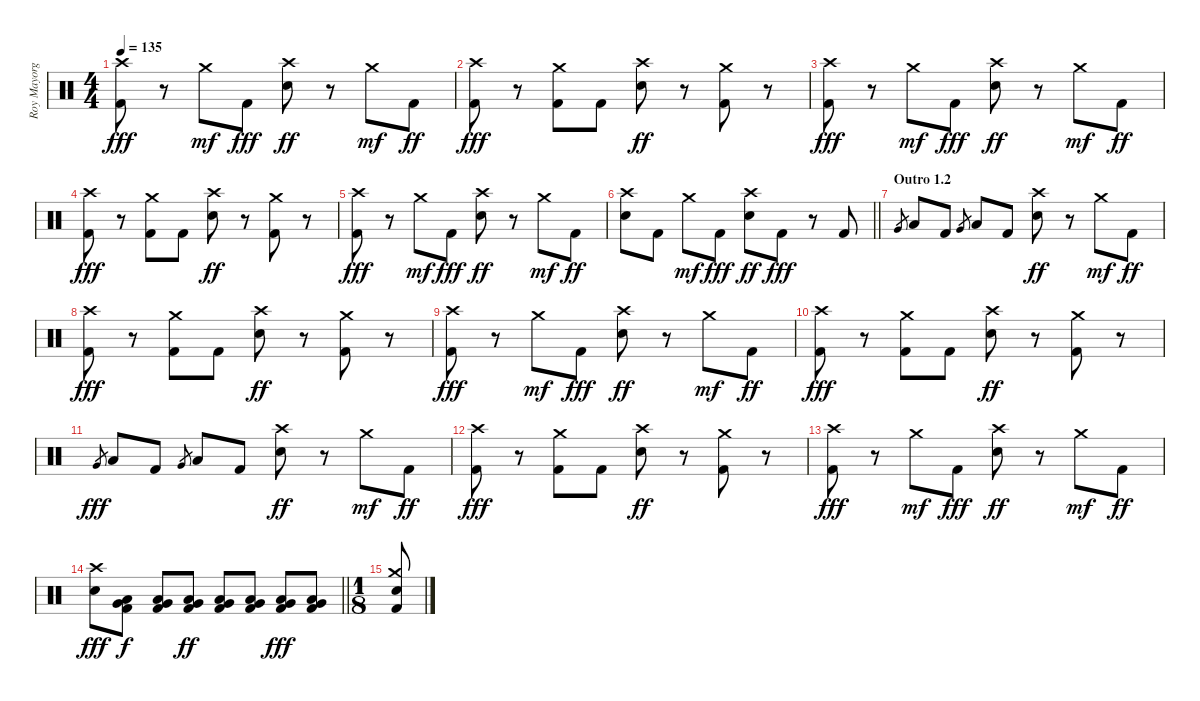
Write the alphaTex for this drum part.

\track ("Roy Mayorga" "Roy Mayorg") {instrument percussion}
\staff {score}
\articulation defaults
\ts (4 4)
\tempo 135
\clef neutral
\ks c
("Crash high (hit)" "Kick (hit) 2").8{dy fff} r.8 "Crash medium (hit)".8{dy mf} "Kick (hit) 2".8{dy fff} ("Crash high (hit)" "Electric Snare (hit)").8{dy ff} r.8 "Crash medium (hit)".8{dy mf} "Kick (hit) 2".8{dy ff} |
("Crash high (hit)" "Kick (hit) 2").8{dy fff} r.8 ("Crash medium (hit)" "Kick (hit) 2").8 "Kick (hit) 2".8 ("Crash high (hit)" "Electric Snare (hit)").8{dy ff} r.8 ("Crash medium (hit)" "Kick (hit) 2").8 r.8 |
("Crash high (hit)" "Kick (hit) 2").8{dy fff} r.8 "Crash medium (hit)".8{dy mf} "Kick (hit) 2".8{dy fff} ("Crash high (hit)" "Electric Snare (hit)").8{dy ff} r.8 "Crash medium (hit)".8{dy mf} "Kick (hit) 2".8{dy ff} |
("Crash high (hit)" "Kick (hit) 2").8{dy fff} r.8 ("Crash medium (hit)" "Kick (hit) 2").8 "Kick (hit) 2".8 ("Crash high (hit)" "Electric Snare (hit)").8{dy ff} r.8 ("Crash medium (hit)" "Kick (hit) 2").8 r.8 |
("Crash high (hit)" "Kick (hit) 2").8{dy fff} r.8 "Crash medium (hit)".8{dy mf} "Kick (hit) 2".8{dy fff} ("Crash high (hit)" "Electric Snare (hit)").8{dy ff} r.8 "Crash medium (hit)".8{dy mf} "Kick (hit) 2".8{dy ff} |
\barLineRight lightlight
("Crash high (hit)" "Electric Snare (hit)").8 "Kick (hit) 2".8 "Crash medium (hit)".8{dy mf} "Kick (hit) 2".8{dy fff} ("Crash high (hit)" "Electric Snare (hit)").8{dy ff} "Kick (hit) 2".8{dy fff} r.8 "Kick (hit) 2".8 |
\section ("" "Outro 1.2")
"Very Low Tom (hit)".8{gr} "Low Floor Tom (hit)".8 "Kick (hit) 2".8 "Very Low Tom (hit)".8{gr} "Low Floor Tom (hit)".8 "Kick (hit) 2".8 ("Crash high (hit)" "Electric Snare (hit)").8{dy ff} r.8 "Crash medium (hit)".8{dy mf} "Kick (hit) 2".8{dy ff} |
("Crash high (hit)" "Kick (hit) 2").8{dy fff} r.8 ("Crash medium (hit)" "Kick (hit) 2").8 "Kick (hit) 2".8 ("Crash high (hit)" "Electric Snare (hit)").8{dy ff} r.8 ("Crash medium (hit)" "Kick (hit) 2").8 r.8 |
("Crash high (hit)" "Kick (hit) 2").8{dy fff} r.8 "Crash medium (hit)".8{dy mf} "Kick (hit) 2".8{dy fff} ("Crash high (hit)" "Electric Snare (hit)").8{dy ff} r.8 "Crash medium (hit)".8{dy mf} "Kick (hit) 2".8{dy ff} |
("Crash high (hit)" "Kick (hit) 2").8{dy fff} r.8 ("Crash medium (hit)" "Kick (hit) 2").8 "Kick (hit) 2".8 ("Crash high (hit)" "Electric Snare (hit)").8{dy ff} r.8 ("Crash medium (hit)" "Kick (hit) 2").8 r.8 |
"Very Low Tom (hit)".8{gr dy fff} "Low Floor Tom (hit)".8 "Kick (hit) 2".8 "Very Low Tom (hit)".8{gr} "Low Floor Tom (hit)".8 "Kick (hit) 2".8 ("Crash high (hit)" "Electric Snare (hit)").8{dy ff} r.8 "Crash medium (hit)".8{dy mf} "Kick (hit) 2".8{dy ff} |
("Crash high (hit)" "Kick (hit) 2").8{dy fff} r.8 ("Crash medium (hit)" "Kick (hit) 2").8 "Kick (hit) 2".8 ("Crash high (hit)" "Electric Snare (hit)").8{dy ff} r.8 ("Crash medium (hit)" "Kick (hit) 2").8 r.8 |
("Crash high (hit)" "Kick (hit) 2").8{dy fff} r.8 "Crash medium (hit)".8{dy mf} "Kick (hit) 2".8{dy fff} ("Crash high (hit)" "Electric Snare (hit)").8{dy ff} r.8 "Crash medium (hit)".8{dy mf} "Kick (hit) 2".8{dy ff} |
\barLineRight lightlight
("Crash high (hit)" "Electric Snare (hit)").8{dy fff} ("Very Low Tom (hit)" "Low Floor Tom (hit)" "Kick (hit) 2").8{dy f} ("Very Low Tom (hit)" "Low Floor Tom (hit)" "Kick (hit) 2").8 ("Very Low Tom (hit)" "Low Floor Tom (hit)" "Kick (hit) 2").8{dy ff} ("Very Low Tom (hit)" "Low Floor Tom (hit)" "Kick (hit) 2").8 ("Very Low Tom (hit)" "Low Floor Tom (hit)" "Kick (hit) 2").8 ("Very Low Tom (hit)" "Low Floor Tom (hit)" "Kick (hit) 2").8{dy fff} ("Very Low Tom (hit)" "Low Floor Tom (hit)" "Kick (hit) 2").8 |
\ts (1 8)
("Crash medium (hit)" "Electric Snare (hit)" "Kick (hit) 2").8
